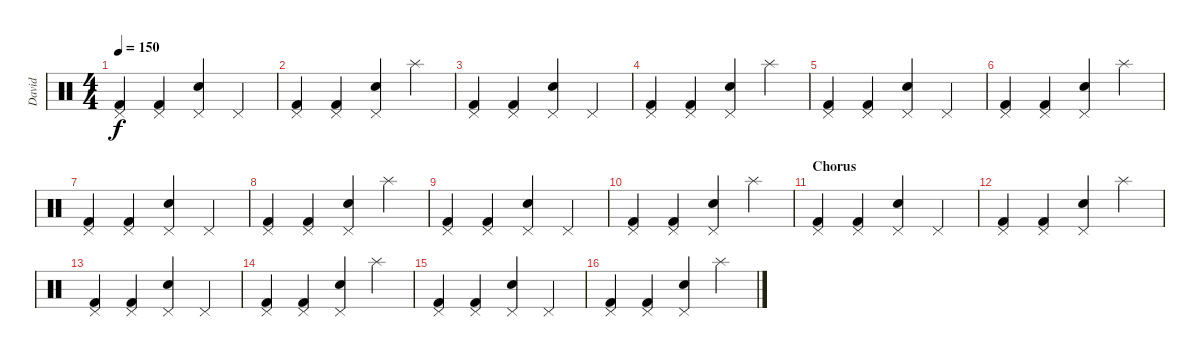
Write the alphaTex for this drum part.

\track ("David" "David") {instrument percussion}
\staff {score}
\articulation defaults
\ts (4 4)
\tempo 150
\clef neutral
\ks c
("Pedal Hi-Hat (hit)" "Kick (hit) 2").4{dy f} ("Pedal Hi-Hat (hit)" "Kick (hit) 2").4 ("Pedal Hi-Hat (hit)" "Hand Clap (hit)").4 "Pedal Hi-Hat (hit)".4 |
("Pedal Hi-Hat (hit)" "Kick (hit) 2").4 ("Pedal Hi-Hat (hit)" "Kick (hit) 2").4 ("Pedal Hi-Hat (hit)" "Hand Clap (hit)").4 "Splash (hit)".4 |
("Pedal Hi-Hat (hit)" "Kick (hit) 2").4 ("Pedal Hi-Hat (hit)" "Kick (hit) 2").4 ("Pedal Hi-Hat (hit)" "Hand Clap (hit)").4 "Pedal Hi-Hat (hit)".4 |
("Pedal Hi-Hat (hit)" "Kick (hit) 2").4 ("Pedal Hi-Hat (hit)" "Kick (hit) 2").4 ("Pedal Hi-Hat (hit)" "Hand Clap (hit)").4 "Splash (hit)".4 |
("Pedal Hi-Hat (hit)" "Kick (hit) 2").4 ("Pedal Hi-Hat (hit)" "Kick (hit) 2").4 ("Pedal Hi-Hat (hit)" "Hand Clap (hit)").4 "Pedal Hi-Hat (hit)".4 |
("Pedal Hi-Hat (hit)" "Kick (hit) 2").4 ("Pedal Hi-Hat (hit)" "Kick (hit) 2").4 ("Pedal Hi-Hat (hit)" "Hand Clap (hit)").4 "Splash (hit)".4 |
("Pedal Hi-Hat (hit)" "Kick (hit) 2").4 ("Pedal Hi-Hat (hit)" "Kick (hit) 2").4 ("Pedal Hi-Hat (hit)" "Hand Clap (hit)").4 "Pedal Hi-Hat (hit)".4 |
("Pedal Hi-Hat (hit)" "Kick (hit) 2").4 ("Pedal Hi-Hat (hit)" "Kick (hit) 2").4 ("Pedal Hi-Hat (hit)" "Hand Clap (hit)").4 "Splash (hit)".4 |
("Pedal Hi-Hat (hit)" "Kick (hit) 2").4 ("Pedal Hi-Hat (hit)" "Kick (hit) 2").4 ("Pedal Hi-Hat (hit)" "Hand Clap (hit)").4 "Pedal Hi-Hat (hit)".4 |
("Pedal Hi-Hat (hit)" "Kick (hit) 2").4 ("Pedal Hi-Hat (hit)" "Kick (hit) 2").4 ("Pedal Hi-Hat (hit)" "Hand Clap (hit)").4 "Splash (hit)".4 |
\section ("" "Chorus")
("Pedal Hi-Hat (hit)" "Kick (hit) 2").4 ("Pedal Hi-Hat (hit)" "Kick (hit) 2").4 ("Pedal Hi-Hat (hit)" "Hand Clap (hit)").4 "Pedal Hi-Hat (hit)".4 |
("Pedal Hi-Hat (hit)" "Kick (hit) 2").4 ("Pedal Hi-Hat (hit)" "Kick (hit) 2").4 ("Pedal Hi-Hat (hit)" "Hand Clap (hit)").4 "Splash (hit)".4 |
("Pedal Hi-Hat (hit)" "Kick (hit) 2").4 ("Pedal Hi-Hat (hit)" "Kick (hit) 2").4 ("Pedal Hi-Hat (hit)" "Hand Clap (hit)").4 "Pedal Hi-Hat (hit)".4 |
("Pedal Hi-Hat (hit)" "Kick (hit) 2").4 ("Pedal Hi-Hat (hit)" "Kick (hit) 2").4 ("Pedal Hi-Hat (hit)" "Hand Clap (hit)").4 "Splash (hit)".4 |
("Pedal Hi-Hat (hit)" "Kick (hit) 2").4 ("Pedal Hi-Hat (hit)" "Kick (hit) 2").4 ("Pedal Hi-Hat (hit)" "Hand Clap (hit)").4 "Pedal Hi-Hat (hit)".4 |
("Pedal Hi-Hat (hit)" "Kick (hit) 2").4 ("Pedal Hi-Hat (hit)" "Kick (hit) 2").4 ("Pedal Hi-Hat (hit)" "Hand Clap (hit)").4 "Splash (hit)".4
